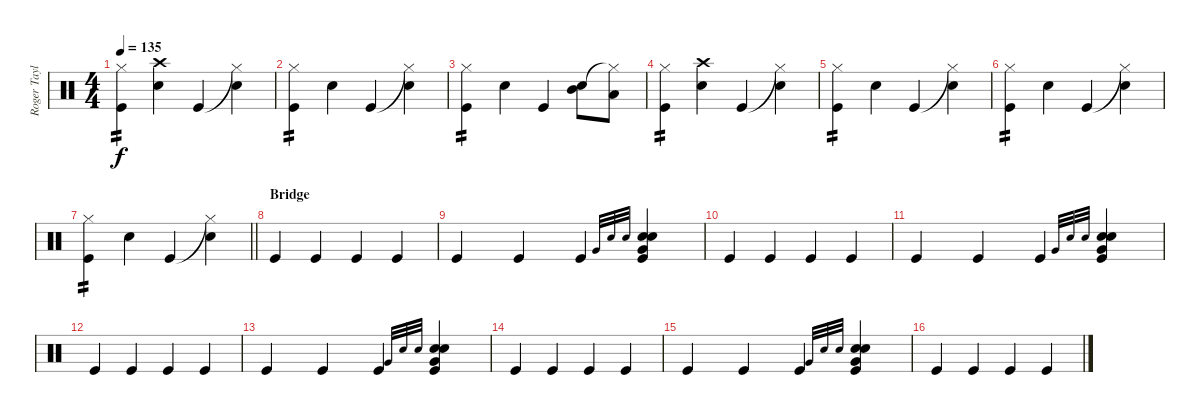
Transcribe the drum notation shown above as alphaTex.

\track ("Roger Taylor" "Roger Tayl") {instrument percussion}
\staff {score}
\articulation defaults
\ts (4 4)
\tempo 135
\clef neutral
\ks c
("Hi-Hat (closed)" "Kick (hit)").4{tp 2 dy f} ("Crash high (hit)" "Snare (hit) 2").4 "Kick (hit)".4 ("Hi-Hat (closed)"{t} "Snare (hit) 2").4 |
("Hi-Hat (closed)" "Kick (hit)").4{tp 2} "Snare (hit) 2".4 "Kick (hit)".4 ("Hi-Hat (closed)"{t} "Snare (hit) 2").4 |
("Hi-Hat (closed)" "Kick (hit)").4{tp 2} "Snare (hit) 2".4 "Kick (hit)".4 ("Mid Tom (hit)" "Snare (hit) 2").8 ("Hi-Hat (closed)"{t} "Low Tom (hit)").8 |
("Hi-Hat (closed)" "Kick (hit)").4{tp 2} ("Crash high (hit)" "Snare (hit) 2").4 "Kick (hit)".4 ("Hi-Hat (closed)"{t} "Snare (hit) 2").4 |
("Hi-Hat (closed)" "Kick (hit)").4{tp 2} "Snare (hit) 2".4 "Kick (hit)".4 ("Hi-Hat (closed)"{t} "Snare (hit) 2").4 |
("Hi-Hat (closed)" "Kick (hit)").4{tp 2} "Snare (hit) 2".4 "Kick (hit)".4 ("Hi-Hat (closed)"{t} "Snare (hit) 2").4 |
\barLineRight lightlight
("Hi-Hat (closed)" "Kick (hit)").4{tp 2} "Snare (hit) 2".4 "Kick (hit)".4 ("Hi-Hat (closed)"{t} "Snare (hit) 2").4 |
\section ("" "Bridge")
"Kick (hit)".4 "Kick (hit)".4 "Kick (hit)".4 "Kick (hit)".4 |
"Kick (hit)".4 "Kick (hit)".4 "Kick (hit)".4 "Very Low Tom (hit)".32{gr onbeat} "Electric Snare (hit)".32{gr onbeat} "Snare (hit) 2".32{gr onbeat} ("Very Low Tom (hit)" "Electric Snare (hit)" "Snare (hit) 2" "Kick (hit)").4 |
"Kick (hit)".4 "Kick (hit)".4 "Kick (hit)".4 "Kick (hit)".4 |
"Kick (hit)".4 "Kick (hit)".4 "Kick (hit)".4 "Very Low Tom (hit)".32{gr onbeat} "Electric Snare (hit)".32{gr onbeat} "Snare (hit) 2".32{gr onbeat} ("Very Low Tom (hit)" "Electric Snare (hit)" "Snare (hit) 2" "Kick (hit)").4 |
"Kick (hit)".4 "Kick (hit)".4 "Kick (hit)".4 "Kick (hit)".4 |
"Kick (hit)".4 "Kick (hit)".4 "Kick (hit)".4 "Very Low Tom (hit)".32{gr onbeat} "Electric Snare (hit)".32{gr onbeat} "Snare (hit) 2".32{gr onbeat} ("Very Low Tom (hit)" "Electric Snare (hit)" "Snare (hit) 2" "Kick (hit)").4 |
"Kick (hit)".4 "Kick (hit)".4 "Kick (hit)".4 "Kick (hit)".4 |
"Kick (hit)".4 "Kick (hit)".4 "Kick (hit)".4 "Very Low Tom (hit)".32{gr onbeat} "Electric Snare (hit)".32{gr onbeat} "Snare (hit) 2".32{gr onbeat} ("Very Low Tom (hit)" "Electric Snare (hit)" "Snare (hit) 2" "Kick (hit)").4 |
"Kick (hit)".4 "Kick (hit)".4 "Kick (hit)".4 "Kick (hit)".4
